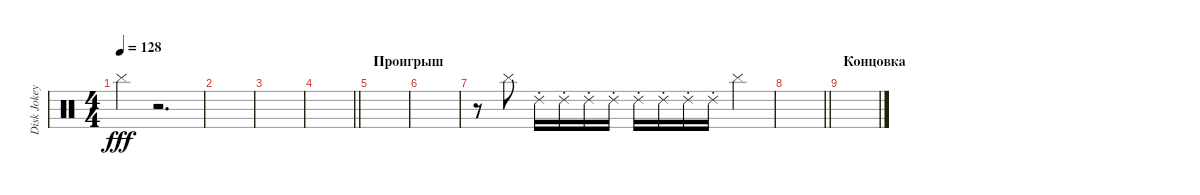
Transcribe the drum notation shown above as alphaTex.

\track ("Disk Jokey" "Disk Jokey") {instrument percussion}
\staff {score}
\articulation defaults
\ts (4 4)
\tempo 128
\clef neutral
\ks c "Cymbal (hit)".4{dy fff}
r.2{d} |
|
|
\barLineRight lightlight
|
\section ("" "Проигрыш")
|
|
r.8 "Cymbal (hit)".8 "Ride (choke) 2".16 "Ride (choke) 2".16 "Ride (choke) 2".16 "Ride (choke) 2".16 "Ride (choke) 2".16 "Ride (choke) 2".16 "Ride (choke) 2".16 "Ride (choke) 2".16 "Cymbal (hit)".4 |
\barLineRight lightlight
|
\section ("" "Концовка")
